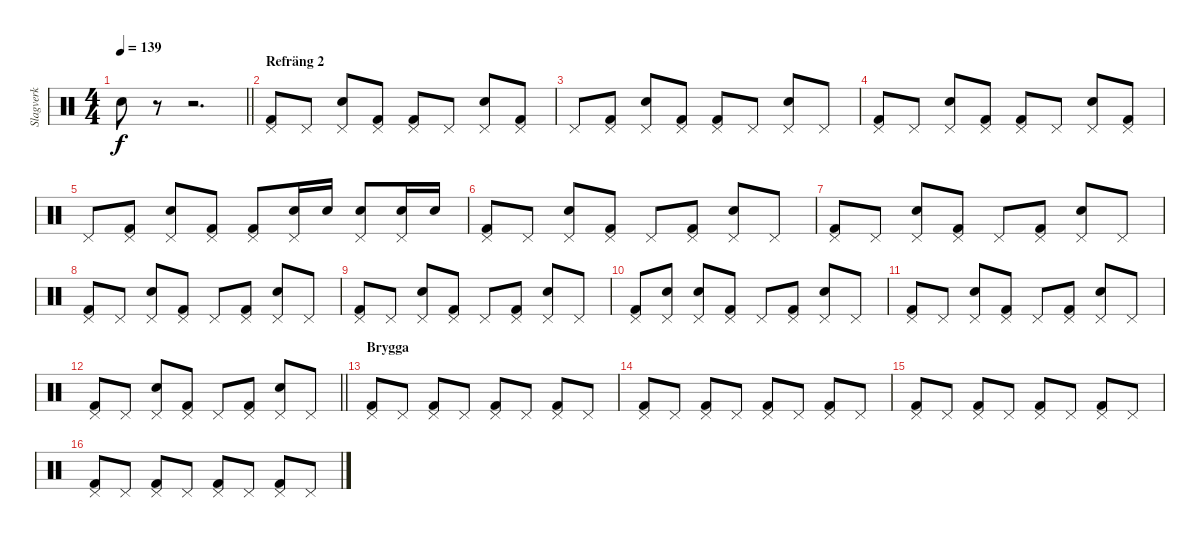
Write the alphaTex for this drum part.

\track ("Slagverk" "Slagverk") {instrument percussion}
\staff {score}
\articulation defaults
\ts (4 4)
\tempo 139
\clef neutral
\barLineRight lightlight
\ks c "Snare (hit) 2".8{dy f}
r.8 r.2{d} |
\section ("" "Refräng 2")
("Pedal Hi-Hat (hit)" "Kick (hit) 2").8 "Pedal Hi-Hat (hit)".8 ("Pedal Hi-Hat (hit)" "Snare (hit) 2").8 ("Pedal Hi-Hat (hit)" "Kick (hit) 2").8 ("Pedal Hi-Hat (hit)" "Kick (hit) 2").8 "Pedal Hi-Hat (hit)".8 ("Pedal Hi-Hat (hit)" "Snare (hit) 2").8 ("Pedal Hi-Hat (hit)" "Kick (hit) 2").8 |
"Pedal Hi-Hat (hit)".8 ("Pedal Hi-Hat (hit)" "Kick (hit) 2").8 ("Pedal Hi-Hat (hit)" "Snare (hit) 2").8 ("Pedal Hi-Hat (hit)" "Kick (hit) 2").8 ("Pedal Hi-Hat (hit)" "Kick (hit) 2").8 "Pedal Hi-Hat (hit)".8 ("Pedal Hi-Hat (hit)" "Snare (hit) 2").8 "Pedal Hi-Hat (hit)".8 |
("Pedal Hi-Hat (hit)" "Kick (hit) 2").8 "Pedal Hi-Hat (hit)".8 ("Pedal Hi-Hat (hit)" "Snare (hit) 2").8 ("Pedal Hi-Hat (hit)" "Kick (hit) 2").8 ("Pedal Hi-Hat (hit)" "Kick (hit) 2").8 "Pedal Hi-Hat (hit)".8 ("Pedal Hi-Hat (hit)" "Snare (hit) 2").8 ("Pedal Hi-Hat (hit)" "Kick (hit) 2").8 |
"Pedal Hi-Hat (hit)".8 ("Pedal Hi-Hat (hit)" "Kick (hit) 2").8 ("Pedal Hi-Hat (hit)" "Snare (hit) 2").8 ("Pedal Hi-Hat (hit)" "Kick (hit) 2").8 ("Pedal Hi-Hat (hit)" "Kick (hit) 2").8 ("Pedal Hi-Hat (hit)" "Snare (hit) 2").16 "Snare (hit) 2".16 ("Pedal Hi-Hat (hit)" "Snare (hit) 2").8 ("Pedal Hi-Hat (hit)" "Snare (hit) 2").16 "Snare (hit) 2".16 |
("Pedal Hi-Hat (hit)" "Kick (hit) 2").8 "Pedal Hi-Hat (hit)".8 ("Pedal Hi-Hat (hit)" "Snare (hit) 2").8 ("Pedal Hi-Hat (hit)" "Kick (hit) 2").8 "Pedal Hi-Hat (hit)".8 ("Pedal Hi-Hat (hit)" "Kick (hit) 2").8 ("Pedal Hi-Hat (hit)" "Snare (hit) 2").8 "Pedal Hi-Hat (hit)".8 |
("Pedal Hi-Hat (hit)" "Kick (hit) 2").8 "Pedal Hi-Hat (hit)".8 ("Pedal Hi-Hat (hit)" "Snare (hit) 2").8 ("Pedal Hi-Hat (hit)" "Kick (hit) 2").8 "Pedal Hi-Hat (hit)".8 ("Pedal Hi-Hat (hit)" "Kick (hit) 2").8 ("Pedal Hi-Hat (hit)" "Snare (hit) 2").8 "Pedal Hi-Hat (hit)".8 |
("Pedal Hi-Hat (hit)" "Kick (hit) 2").8 "Pedal Hi-Hat (hit)".8 ("Pedal Hi-Hat (hit)" "Snare (hit) 2").8 ("Pedal Hi-Hat (hit)" "Kick (hit) 2").8 "Pedal Hi-Hat (hit)".8 ("Pedal Hi-Hat (hit)" "Kick (hit) 2").8 ("Pedal Hi-Hat (hit)" "Snare (hit) 2").8 "Pedal Hi-Hat (hit)".8 |
("Pedal Hi-Hat (hit)" "Kick (hit) 2").8 "Pedal Hi-Hat (hit)".8 ("Pedal Hi-Hat (hit)" "Snare (hit) 2").8 ("Pedal Hi-Hat (hit)" "Kick (hit) 2").8 "Pedal Hi-Hat (hit)".8 ("Pedal Hi-Hat (hit)" "Kick (hit) 2").8 ("Pedal Hi-Hat (hit)" "Snare (hit) 2").8 "Pedal Hi-Hat (hit)".8 |
("Pedal Hi-Hat (hit)" "Kick (hit) 2").8 ("Pedal Hi-Hat (hit)" "Snare (hit) 2").8 ("Pedal Hi-Hat (hit)" "Snare (hit) 2").8 ("Pedal Hi-Hat (hit)" "Kick (hit) 2").8 "Pedal Hi-Hat (hit)".8 ("Pedal Hi-Hat (hit)" "Kick (hit) 2").8 ("Pedal Hi-Hat (hit)" "Snare (hit) 2").8 "Pedal Hi-Hat (hit)".8 |
("Pedal Hi-Hat (hit)" "Kick (hit) 2").8 "Pedal Hi-Hat (hit)".8 ("Pedal Hi-Hat (hit)" "Snare (hit) 2").8 ("Pedal Hi-Hat (hit)" "Kick (hit) 2").8 "Pedal Hi-Hat (hit)".8 ("Pedal Hi-Hat (hit)" "Kick (hit) 2").8 ("Pedal Hi-Hat (hit)" "Snare (hit) 2").8 "Pedal Hi-Hat (hit)".8 |
\barLineRight lightlight
("Pedal Hi-Hat (hit)" "Kick (hit) 2").8 "Pedal Hi-Hat (hit)".8 ("Pedal Hi-Hat (hit)" "Snare (hit) 2").8 ("Pedal Hi-Hat (hit)" "Kick (hit) 2").8 "Pedal Hi-Hat (hit)".8 ("Pedal Hi-Hat (hit)" "Kick (hit) 2").8 ("Pedal Hi-Hat (hit)" "Snare (hit) 2").8 "Pedal Hi-Hat (hit)".8 |
\section ("" "Brygga")
("Pedal Hi-Hat (hit)" "Kick (hit) 2").8 "Pedal Hi-Hat (hit)".8 ("Pedal Hi-Hat (hit)" "Kick (hit) 2").8 "Pedal Hi-Hat (hit)".8 ("Pedal Hi-Hat (hit)" "Kick (hit) 2").8 "Pedal Hi-Hat (hit)".8 ("Pedal Hi-Hat (hit)" "Kick (hit) 2").8 "Pedal Hi-Hat (hit)".8 |
("Pedal Hi-Hat (hit)" "Kick (hit) 2").8 "Pedal Hi-Hat (hit)".8 ("Pedal Hi-Hat (hit)" "Kick (hit) 2").8 "Pedal Hi-Hat (hit)".8 ("Pedal Hi-Hat (hit)" "Kick (hit) 2").8 "Pedal Hi-Hat (hit)".8 ("Pedal Hi-Hat (hit)" "Kick (hit) 2").8 "Pedal Hi-Hat (hit)".8 |
("Pedal Hi-Hat (hit)" "Kick (hit) 2").8 "Pedal Hi-Hat (hit)".8 ("Pedal Hi-Hat (hit)" "Kick (hit) 2").8 "Pedal Hi-Hat (hit)".8 ("Pedal Hi-Hat (hit)" "Kick (hit) 2").8 "Pedal Hi-Hat (hit)".8 ("Pedal Hi-Hat (hit)" "Kick (hit) 2").8 "Pedal Hi-Hat (hit)".8 |
("Pedal Hi-Hat (hit)" "Kick (hit) 2").8 "Pedal Hi-Hat (hit)".8 ("Pedal Hi-Hat (hit)" "Kick (hit) 2").8 "Pedal Hi-Hat (hit)".8 ("Pedal Hi-Hat (hit)" "Kick (hit) 2").8 "Pedal Hi-Hat (hit)".8 ("Pedal Hi-Hat (hit)" "Kick (hit) 2").8 "Pedal Hi-Hat (hit)".8
